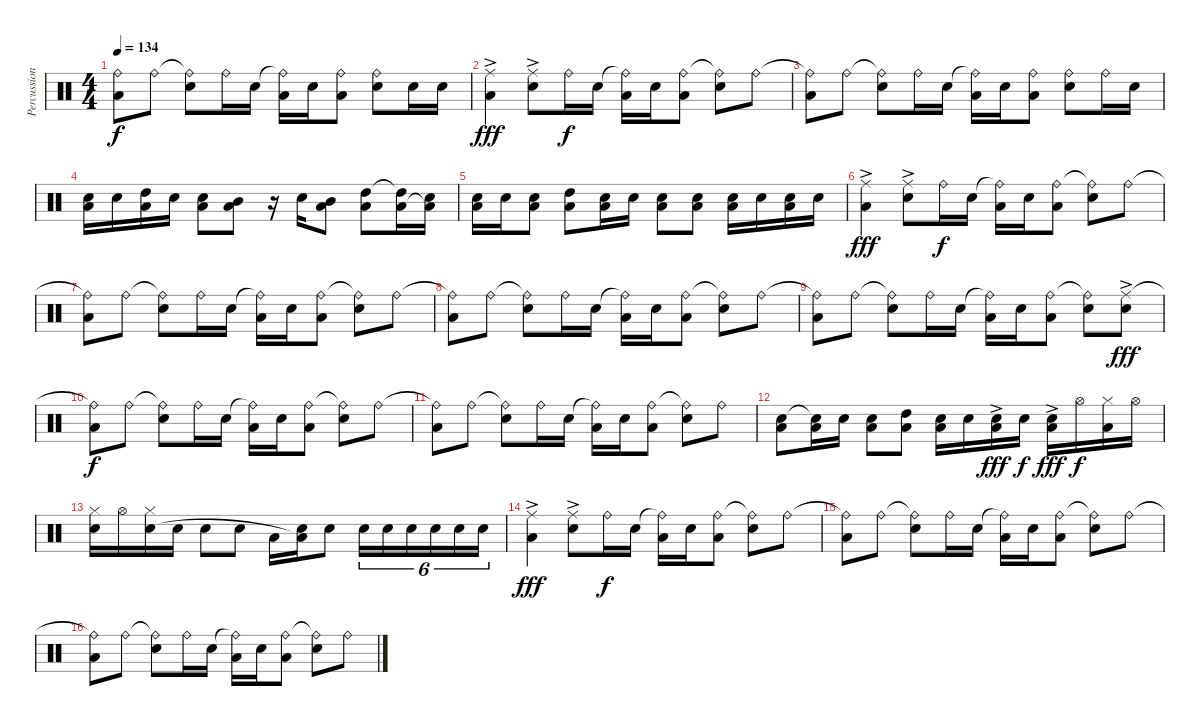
\track ("Percussion" "Percussion") {instrument percussion}
\staff {score}
\articulation defaults
\ts (4 4)
\tempo 134
\clef neutral
\ks c
("Ride (bell)"{t} "Low Floor Tom (hit)").8{dy f} "Ride (bell)".8 ("Ride (bell)"{t} "Snare (hit) 2").8 "Ride (bell)".16 "Snare (hit) 2".16 ("Ride (bell)"{t} "Low Floor Tom (hit)").16 "Snare (hit) 2".16 ("Ride (bell)" "Low Floor Tom (hit)").8 ("Ride (bell)" "Snare (hit) 2").8 "Snare (hit) 2".16 "Snare (hit) 2".16 |
("Ride (middle)"{ac} "Low Floor Tom (hit)").4{dy fff} ("Ride (middle)"{ac} "Snare (hit) 2").8 "Ride (bell)".16{dy f} "Snare (hit) 2".16 ("Ride (bell)"{t} "Low Floor Tom (hit)").16 "Snare (hit) 2".16 ("Ride (bell)" "Low Floor Tom (hit)").8 ("Ride (bell)"{t} "Snare (hit) 2").8 "Ride (bell)".8 |
("Ride (bell)"{t} "Low Floor Tom (hit)").8 "Ride (bell)".8 ("Ride (bell)"{t} "Snare (hit) 2").8 "Ride (bell)".16 "Snare (hit) 2".16 ("Ride (bell)"{t} "Low Floor Tom (hit)").16 "Snare (hit) 2".16 ("Ride (bell)" "Low Floor Tom (hit)").8 ("Ride (bell)" "Snare (hit) 2").8 "Ride (bell)".16 "Snare (hit) 2".16 |
("Snare (hit) 2" "Low Floor Tom (hit)").16 "Snare (hit) 2".16 ("High Tom (hit)" "Low Floor Tom (hit)").16 "Snare (hit) 2".16 ("Snare (hit) 2" "Low Floor Tom (hit)").8 ("Mid Tom (hit)" "Low Floor Tom (hit)").8 r.16 "Snare (hit) 2".16 ("Mid Tom (hit)" "Low Floor Tom (hit)").8 ("High Tom (hit)" "Low Floor Tom (hit)").8 ("High Tom (hit)"{t} "Low Floor Tom (hit)").16 ("Snare (hit) 2" "Low Floor Tom (hit)"{t}).16 |
("Snare (hit) 2" "Low Floor Tom (hit)").16 "Snare (hit) 2".16 ("Snare (hit) 2" "Low Floor Tom (hit)").8 ("High Tom (hit)" "Low Floor Tom (hit)").8 ("Snare (hit) 2" "Low Floor Tom (hit)").16 "Snare (hit) 2".16 ("Snare (hit) 2" "Low Floor Tom (hit)").8 ("Snare (hit) 2" "Low Floor Tom (hit)").8 ("Snare (hit) 2" "Low Floor Tom (hit)").16 "Snare (hit) 2".16 ("Snare (hit) 2" "Low Floor Tom (hit)").16 "Snare (hit) 2".16 |
("Ride (middle)"{ac} "Low Floor Tom (hit)").4{dy fff} ("Ride (middle)"{ac} "Snare (hit) 2").8 "Ride (bell)".16{dy f} "Snare (hit) 2".16 ("Ride (bell)"{t} "Low Floor Tom (hit)").16 "Snare (hit) 2".16 ("Ride (bell)" "Low Floor Tom (hit)").8 ("Ride (bell)"{t} "Snare (hit) 2").8 "Ride (bell)".8 |
("Ride (bell)"{t} "Low Floor Tom (hit)").8 "Ride (bell)".8 ("Ride (bell)"{t} "Snare (hit) 2").8 "Ride (bell)".16 "Snare (hit) 2".16 ("Ride (bell)"{t} "Low Floor Tom (hit)").16 "Snare (hit) 2".16 ("Ride (bell)" "Low Floor Tom (hit)").8 ("Ride (bell)"{t} "Snare (hit) 2").8 "Ride (bell)".8 |
("Ride (bell)"{t} "Low Floor Tom (hit)").8 "Ride (bell)".8 ("Ride (bell)"{t} "Snare (hit) 2").8 "Ride (bell)".16 "Snare (hit) 2".16 ("Ride (bell)"{t} "Low Floor Tom (hit)").16 "Snare (hit) 2".16 ("Ride (bell)" "Low Floor Tom (hit)").8 ("Ride (bell)"{t} "Snare (hit) 2").8 "Ride (bell)".8 |
("Ride (bell)"{t} "Low Floor Tom (hit)").8 "Ride (bell)".8 ("Ride (bell)"{t} "Snare (hit) 2").8 "Ride (bell)".16 "Snare (hit) 2".16 ("Ride (bell)"{t} "Low Floor Tom (hit)").16 "Snare (hit) 2".16 ("Ride (bell)" "Low Floor Tom (hit)").8 ("Ride (bell)"{t} "Snare (hit) 2").8 ("Ride (middle)"{ac} "Snare (hit) 2").8{dy fff} |
("Ride (bell)"{t} "Low Floor Tom (hit)").8{dy f} "Ride (bell)".8 ("Ride (bell)"{t} "Snare (hit) 2").8 "Ride (bell)".16 "Snare (hit) 2".16 ("Ride (bell)"{t} "Low Floor Tom (hit)").16 "Snare (hit) 2".16 ("Ride (bell)" "Low Floor Tom (hit)").8 ("Ride (bell)"{t} "Snare (hit) 2").8 "Ride (bell)".8 |
("Ride (bell)"{t} "Low Floor Tom (hit)").8 "Ride (bell)".8 ("Ride (bell)"{t} "Snare (hit) 2").8 "Ride (bell)".16 "Snare (hit) 2".16 ("Ride (bell)"{t} "Low Floor Tom (hit)").16 "Snare (hit) 2".16 ("Ride (bell)" "Low Floor Tom (hit)").8 ("Ride (bell)"{t} "Snare (hit) 2").8 "Ride (bell)".8 |
("Snare (hit) 2" "Low Floor Tom (hit)").8 ("Snare (hit) 2"{t} "Low Floor Tom (hit)").16 "Snare (hit) 2".16 ("Snare (hit) 2" "Low Floor Tom (hit)").8 ("High Tom (hit)" "Low Floor Tom (hit)").8 ("Snare (hit) 2" "Low Floor Tom (hit)").16 "Snare (hit) 2".16 ("Snare (hit) 2"{ac} "Low Floor Tom (hit)").16{dy fff} "Snare (hit) 2".16{dy f} ("Snare (hit) 2"{ac} "Low Floor Tom (hit)").16{dy fff} "Hi-Hat (open)".16{dy f} ("Hi-Hat (closed)" "Low Floor Tom (hit)").16 "Hi-Hat (open)".16 |
("Hi-Hat (closed)" "Snare (hit) 2").16 "Hi-Hat (open)".16 ("Hi-Hat (closed)" "Snare (hit) 2").16 "Snare (hit) 2".16 "Snare (hit) 2".8 "Snare (hit) 2".8 "Low Floor Tom (hit)".16 ("Snare (hit) 2" "Low Floor Tom (hit)"{t}).16 "Snare (hit) 2".8 "Snare (hit) 2".16{tu (6 4)} "Snare (hit) 2".16{tu (6 4)} "Snare (hit) 2".16{tu (6 4)} "Snare (hit) 2".16{tu (6 4)} "Snare (hit) 2".16{tu (6 4)} "Snare (hit) 2".16{tu (6 4)} |
("Ride (middle)"{ac} "Low Floor Tom (hit)").4{dy fff} ("Ride (middle)"{ac} "Snare (hit) 2").8 "Ride (bell)".16{dy f} "Snare (hit) 2".16 ("Ride (bell)"{t} "Low Floor Tom (hit)").16 "Snare (hit) 2".16 ("Ride (bell)" "Low Floor Tom (hit)").8 ("Ride (bell)"{t} "Snare (hit) 2").8 "Ride (bell)".8 |
("Ride (bell)"{t} "Low Floor Tom (hit)").8 "Ride (bell)".8 ("Ride (bell)"{t} "Snare (hit) 2").8 "Ride (bell)".16 "Snare (hit) 2".16 ("Ride (bell)"{t} "Low Floor Tom (hit)").16 "Snare (hit) 2".16 ("Ride (bell)" "Low Floor Tom (hit)").8 ("Ride (bell)"{t} "Snare (hit) 2").8 "Ride (bell)".8 |
("Ride (bell)"{t} "Low Floor Tom (hit)").8 "Ride (bell)".8 ("Ride (bell)"{t} "Snare (hit) 2").8 "Ride (bell)".16 "Snare (hit) 2".16 ("Ride (bell)"{t} "Low Floor Tom (hit)").16 "Snare (hit) 2".16 ("Ride (bell)" "Low Floor Tom (hit)").8 ("Ride (bell)"{t} "Snare (hit) 2").8 "Ride (bell)".8
